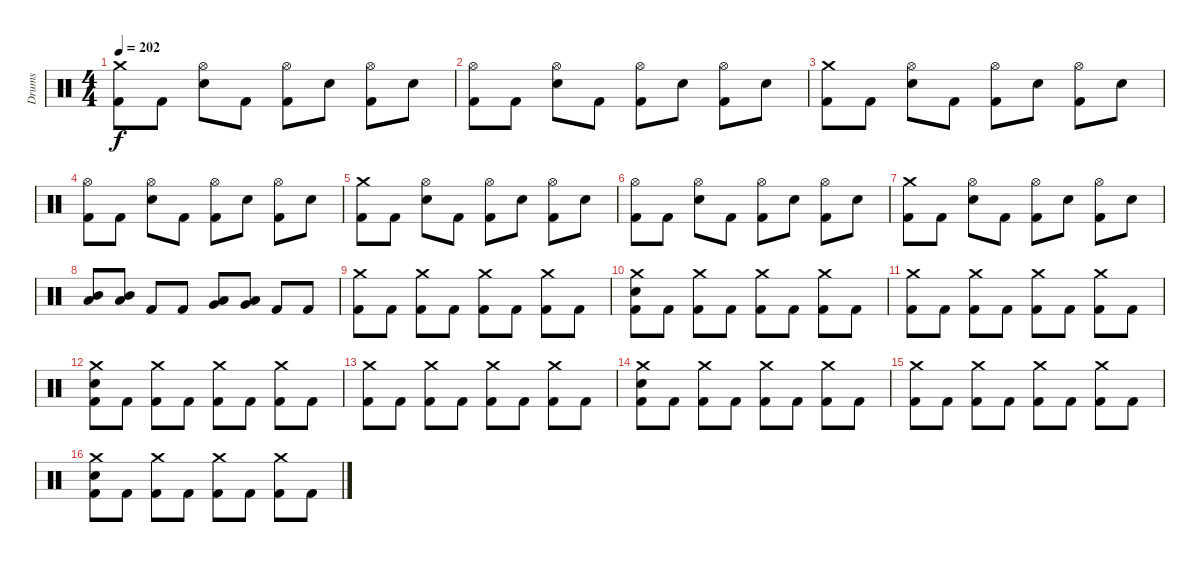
\track ("Drums" "Drums") {instrument percussion}
\staff {score}
\articulation defaults
\ts (4 4)
\tempo 202
\clef neutral
\ks c
("Crash medium (hit)" "Kick (hit) 2").8{dy f} "Kick (hit) 2".8 ("Hi-Hat (open)" "Electric Snare (hit)").8 "Kick (hit) 2".8 ("Hi-Hat (open)" "Kick (hit) 2").8 "Electric Snare (hit)".8 ("Hi-Hat (open)" "Kick (hit) 2").8 "Electric Snare (hit)".8 |
("Hi-Hat (open)" "Kick (hit) 2").8 "Kick (hit) 2".8 ("Hi-Hat (open)" "Electric Snare (hit)").8 "Kick (hit) 2".8 ("Hi-Hat (open)" "Kick (hit) 2").8 "Electric Snare (hit)".8 ("Hi-Hat (open)" "Kick (hit) 2").8 "Electric Snare (hit)".8 |
("Crash medium (hit)" "Kick (hit) 2").8 "Kick (hit) 2".8 ("Hi-Hat (open)" "Electric Snare (hit)").8 "Kick (hit) 2".8 ("Hi-Hat (open)" "Kick (hit) 2").8 "Electric Snare (hit)".8 ("Hi-Hat (open)" "Kick (hit) 2").8 "Electric Snare (hit)".8 |
("Hi-Hat (open)" "Kick (hit) 2").8 "Kick (hit) 2".8 ("Hi-Hat (open)" "Electric Snare (hit)").8 "Kick (hit) 2".8 ("Hi-Hat (open)" "Kick (hit) 2").8 "Electric Snare (hit)".8 ("Hi-Hat (open)" "Kick (hit) 2").8 "Electric Snare (hit)".8 |
("Crash medium (hit)" "Kick (hit) 2").8 "Kick (hit) 2".8 ("Hi-Hat (open)" "Electric Snare (hit)").8 "Kick (hit) 2".8 ("Hi-Hat (open)" "Kick (hit) 2").8 "Electric Snare (hit)".8 ("Hi-Hat (open)" "Kick (hit) 2").8 "Electric Snare (hit)".8 |
("Hi-Hat (open)" "Kick (hit) 2").8 "Kick (hit) 2".8 ("Hi-Hat (open)" "Electric Snare (hit)").8 "Kick (hit) 2".8 ("Hi-Hat (open)" "Kick (hit) 2").8 "Electric Snare (hit)".8 ("Hi-Hat (open)" "Kick (hit) 2").8 "Electric Snare (hit)".8 |
("Crash medium (hit)" "Kick (hit) 2").8 "Kick (hit) 2".8 ("Hi-Hat (open)" "Electric Snare (hit)").8 "Kick (hit) 2".8 ("Hi-Hat (open)" "Kick (hit) 2").8 "Electric Snare (hit)".8 ("Hi-Hat (open)" "Kick (hit) 2").8 "Electric Snare (hit)".8 |
("Mid Tom (hit)" "Low Tom (hit)").8 ("Mid Tom (hit)" "Low Tom (hit)").8 "Kick (hit) 2".8 "Kick (hit) 2".8 ("Low Tom (hit)" "Very Low Tom (hit)").8 ("Low Tom (hit)" "Very Low Tom (hit)").8 "Kick (hit) 2".8 "Kick (hit) 2".8 |
("Crash medium (hit)" "Kick (hit) 2").8 "Kick (hit) 2".8 ("Crash medium (hit)" "Kick (hit) 2").8 "Kick (hit) 2".8 ("Crash medium (hit)" "Kick (hit) 2").8 "Kick (hit) 2".8 ("Crash medium (hit)" "Kick (hit) 2").8 "Kick (hit) 2".8 |
("Crash medium (hit)" "Electric Snare (hit)" "Kick (hit) 2").8 "Kick (hit) 2".8 ("Crash medium (hit)" "Kick (hit) 2").8 "Kick (hit) 2".8 ("Crash medium (hit)" "Kick (hit) 2").8 "Kick (hit) 2".8 ("Crash medium (hit)" "Kick (hit) 2").8 "Kick (hit) 2".8 |
("Crash medium (hit)" "Kick (hit) 2").8 "Kick (hit) 2".8 ("Crash medium (hit)" "Kick (hit) 2").8 "Kick (hit) 2".8 ("Crash medium (hit)" "Kick (hit) 2").8 "Kick (hit) 2".8 ("Crash medium (hit)" "Kick (hit) 2").8 "Kick (hit) 2".8 |
("Crash medium (hit)" "Electric Snare (hit)" "Kick (hit) 2").8 "Kick (hit) 2".8 ("Crash medium (hit)" "Kick (hit) 2").8 "Kick (hit) 2".8 ("Crash medium (hit)" "Kick (hit) 2").8 "Kick (hit) 2".8 ("Crash medium (hit)" "Kick (hit) 2").8 "Kick (hit) 2".8 |
("Crash medium (hit)" "Kick (hit) 2").8 "Kick (hit) 2".8 ("Crash medium (hit)" "Kick (hit) 2").8 "Kick (hit) 2".8 ("Crash medium (hit)" "Kick (hit) 2").8 "Kick (hit) 2".8 ("Crash medium (hit)" "Kick (hit) 2").8 "Kick (hit) 2".8 |
("Crash medium (hit)" "Electric Snare (hit)" "Kick (hit) 2").8 "Kick (hit) 2".8 ("Crash medium (hit)" "Kick (hit) 2").8 "Kick (hit) 2".8 ("Crash medium (hit)" "Kick (hit) 2").8 "Kick (hit) 2".8 ("Crash medium (hit)" "Kick (hit) 2").8 "Kick (hit) 2".8 |
("Crash medium (hit)" "Kick (hit) 2").8 "Kick (hit) 2".8 ("Crash medium (hit)" "Kick (hit) 2").8 "Kick (hit) 2".8 ("Crash medium (hit)" "Kick (hit) 2").8 "Kick (hit) 2".8 ("Crash medium (hit)" "Kick (hit) 2").8 "Kick (hit) 2".8 |
("Crash medium (hit)" "Electric Snare (hit)" "Kick (hit) 2").8 "Kick (hit) 2".8 ("Crash medium (hit)" "Kick (hit) 2").8 "Kick (hit) 2".8 ("Crash medium (hit)" "Kick (hit) 2").8 "Kick (hit) 2".8 ("Crash medium (hit)" "Kick (hit) 2").8 "Kick (hit) 2".8
